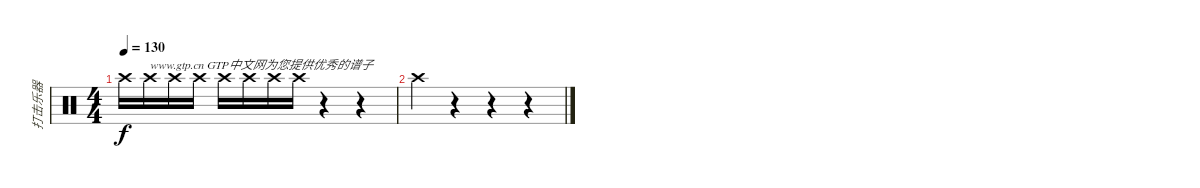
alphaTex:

\track ("打击乐器" "打击乐器") {instrument percussion}
\staff {score}
\articulation defaults
\ts (4 4)
\tempo 130
\clef neutral
\ks c "Crash high (hit)".16{dy f} "Crash high (hit)".16{txt "www.gtp.cn GTP中文网为您提供优秀的谱子"} "Crash high (hit)".16 "Crash high (hit)".16 "Crash high (hit)".16 "Crash high (hit)".16 "Crash high (hit)".16 "Crash high (hit)".16
r.4 r.4 |
"Crash high (hit)".4 r.4 r.4 r.4
